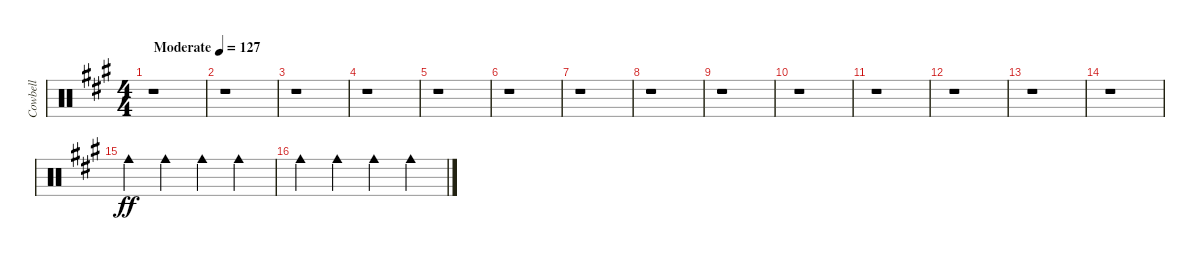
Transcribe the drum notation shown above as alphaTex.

\track ("Cowbell" "Cowbell") {instrument percussion}
\staff {score}
\articulation defaults
\ts (4 4)
\tempo (127 "Moderate")
\clef neutral
\ks a
r.1{dy ff} |
r.1 |
r.1 |
r.1 |
r.1 |
r.1 |
r.1 |
r.1 |
r.1 |
r.1 |
r.1 |
r.1 |
r.1 |
r.1 |
"Cowbell medium (hit)".4{volume 4 balance 13} "Cowbell medium (hit)".4 "Cowbell medium (hit)".4 "Cowbell medium (hit)".4 |
"Cowbell medium (hit)".4 "Cowbell medium (hit)".4 "Cowbell medium (hit)".4 "Cowbell medium (hit)".4
